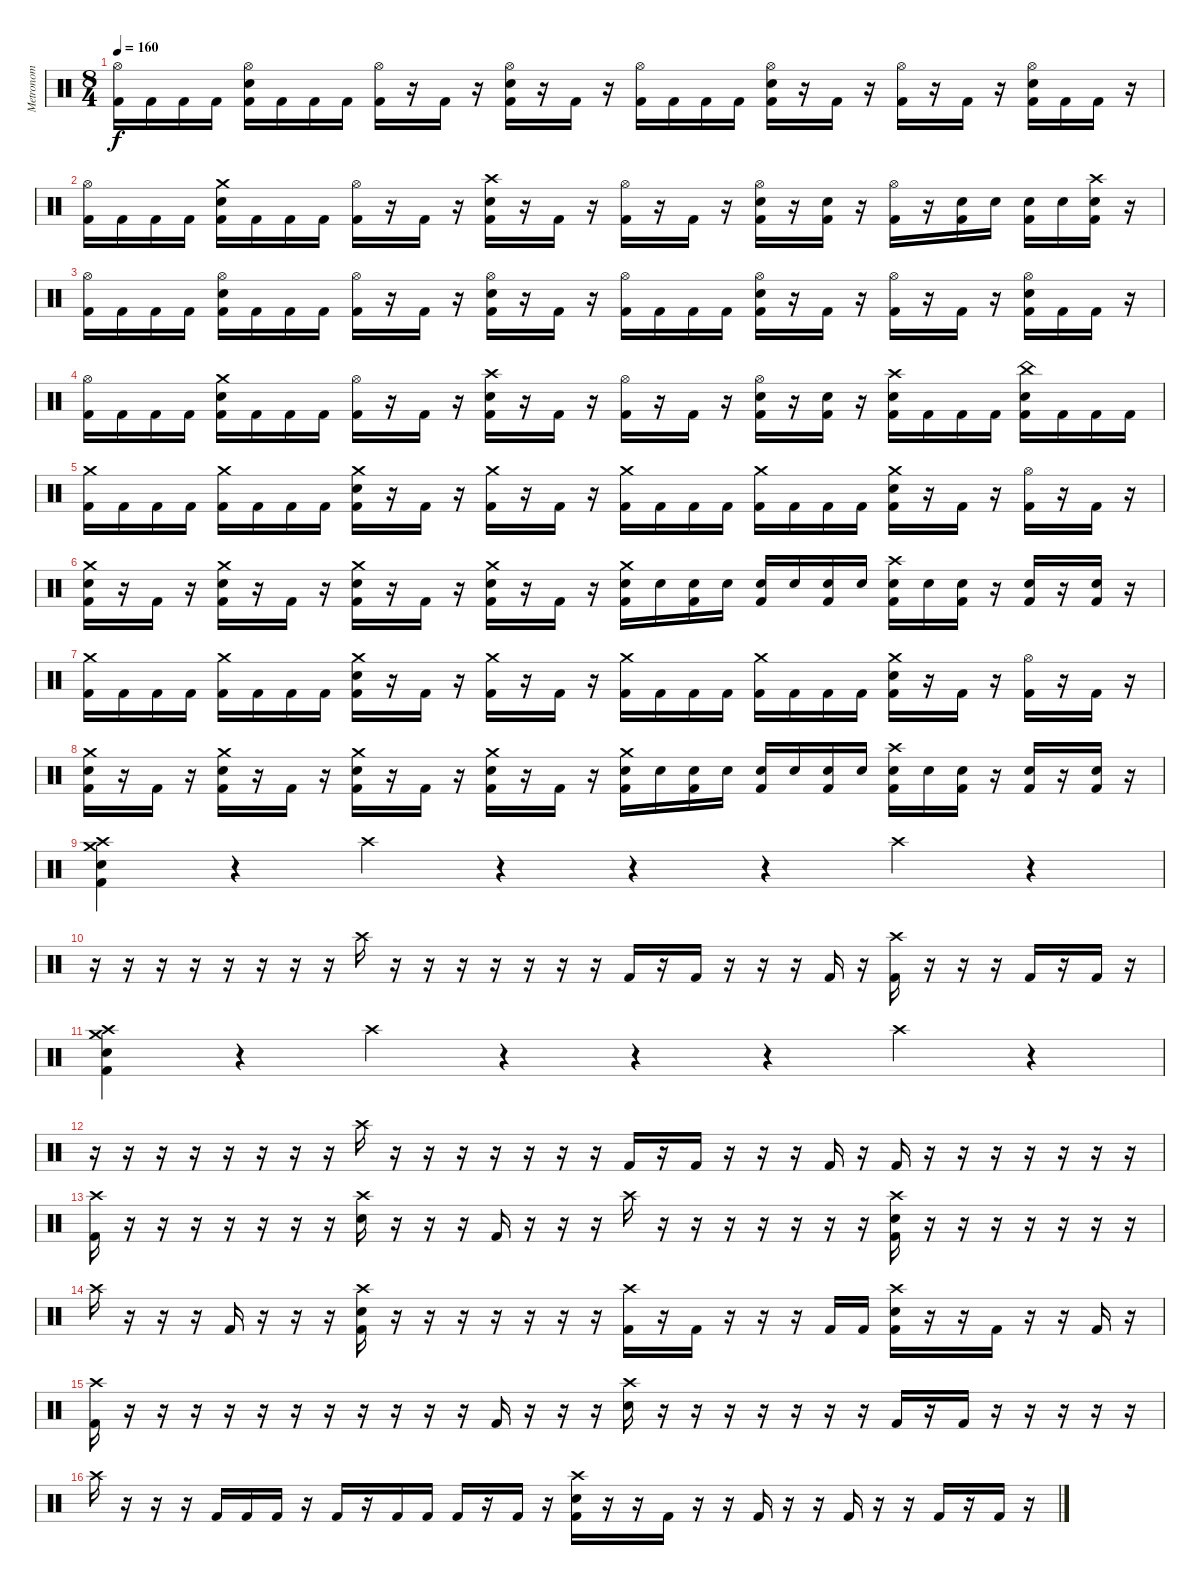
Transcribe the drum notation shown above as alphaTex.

\track ("Metronom" "Metronom") {instrument percussion}
\staff
\articulation defaults
\ts (8 4)
\tempo 160
\clef neutral
\ks c
("Hi-Hat (open)" "Kick (hit) 2").16{dy f} "Kick (hit) 2".16 "Kick (hit) 2".16 "Kick (hit) 2".16 ("Hi-Hat (open)" "Electric Snare (hit)" "Kick (hit) 2").16 "Kick (hit) 2".16 "Kick (hit) 2".16 "Kick (hit) 2".16 ("Hi-Hat (open)" "Kick (hit) 2").16 r.16 "Kick (hit) 2".16 r.16 ("Hi-Hat (open)" "Electric Snare (hit)" "Kick (hit) 2").16 r.16 "Kick (hit) 2".16 r.16 ("Hi-Hat (open)" "Kick (hit) 2").16 "Kick (hit) 2".16 "Kick (hit) 2".16 "Kick (hit) 2".16 ("Hi-Hat (open)" "Electric Snare (hit)" "Kick (hit) 2").16 r.16 "Kick (hit) 2".16 r.16 ("Hi-Hat (open)" "Kick (hit) 2").16 r.16 "Kick (hit) 2".16 r.16 ("Hi-Hat (open)" "Electric Snare (hit)" "Kick (hit) 2").16 "Kick (hit) 2".16 "Kick (hit) 2".16 r.16 |
("Hi-Hat (open)" "Kick (hit) 2").16 "Kick (hit) 2".16 "Kick (hit) 2".16 "Kick (hit) 2".16 ("Crash medium (hit)" "Electric Snare (hit)" "Kick (hit) 2").16 "Kick (hit) 2".16 "Kick (hit) 2".16 "Kick (hit) 2".16 ("Hi-Hat (open)" "Kick (hit) 2").16 r.16 "Kick (hit) 2".16 r.16 ("Crash high (hit)" "Electric Snare (hit)" "Kick (hit) 2").16 r.16 "Kick (hit) 2".16 r.16 ("Hi-Hat (open)" "Kick (hit) 2").16 r.16 "Kick (hit) 2".16 r.16 ("Hi-Hat (open)" "Electric Snare (hit)" "Kick (hit) 2").16 r.16 ("Electric Snare (hit)" "Kick (hit) 2").16 r.16 ("Hi-Hat (open)" "Kick (hit) 2").16 r.16 ("Electric Snare (hit)" "Kick (hit) 2").16 "Electric Snare (hit)".16 ("Electric Snare (hit)" "Kick (hit) 2").16 "Electric Snare (hit)".16 ("Crash high (hit)" "Electric Snare (hit)" "Kick (hit) 2").16 r.16 |
("Hi-Hat (open)" "Kick (hit) 2").16 "Kick (hit) 2".16 "Kick (hit) 2".16 "Kick (hit) 2".16 ("Hi-Hat (open)" "Electric Snare (hit)" "Kick (hit) 2").16 "Kick (hit) 2".16 "Kick (hit) 2".16 "Kick (hit) 2".16 ("Hi-Hat (open)" "Kick (hit) 2").16 r.16 "Kick (hit) 2".16 r.16 ("Hi-Hat (open)" "Electric Snare (hit)" "Kick (hit) 2").16 r.16 "Kick (hit) 2".16 r.16 ("Hi-Hat (open)" "Kick (hit) 2").16 "Kick (hit) 2".16 "Kick (hit) 2".16 "Kick (hit) 2".16 ("Hi-Hat (open)" "Electric Snare (hit)" "Kick (hit) 2").16 r.16 "Kick (hit) 2".16 r.16 ("Hi-Hat (open)" "Kick (hit) 2").16 r.16 "Kick (hit) 2".16 r.16 ("Hi-Hat (open)" "Electric Snare (hit)" "Kick (hit) 2").16 "Kick (hit) 2".16 "Kick (hit) 2".16 r.16 |
("Hi-Hat (open)" "Kick (hit) 2").16 "Kick (hit) 2".16 "Kick (hit) 2".16 "Kick (hit) 2".16 ("Crash medium (hit)" "Electric Snare (hit)" "Kick (hit) 2").16 "Kick (hit) 2".16 "Kick (hit) 2".16 "Kick (hit) 2".16 ("Hi-Hat (open)" "Kick (hit) 2").16 r.16 "Kick (hit) 2".16 r.16 ("Crash high (hit)" "Electric Snare (hit)" "Kick (hit) 2").16 r.16 "Kick (hit) 2".16 r.16 ("Hi-Hat (open)" "Kick (hit) 2").16 r.16 "Kick (hit) 2".16 r.16 ("Hi-Hat (open)" "Electric Snare (hit)" "Kick (hit) 2").16 r.16 ("Electric Snare (hit)" "Kick (hit) 2").16 r.16 ("Crash high (hit)" "Electric Snare (hit)" "Kick (hit) 2").16 "Kick (hit) 2".16 "Kick (hit) 2".16 "Kick (hit) 2".16 ("China (hit)" "Electric Snare (hit)" "Kick (hit) 2").16 "Kick (hit) 2".16 "Kick (hit) 2".16 "Kick (hit) 2".16 |
("Crash medium (hit)" "Kick (hit) 2").16 "Kick (hit) 2".16 "Kick (hit) 2".16 "Kick (hit) 2".16 ("Crash medium (hit)" "Kick (hit) 2").16 "Kick (hit) 2".16 "Kick (hit) 2".16 "Kick (hit) 2".16 ("Crash medium (hit)" "Electric Snare (hit)" "Kick (hit) 2").16 r.16 "Kick (hit) 2".16 r.16 ("Crash medium (hit)" "Kick (hit) 2").16 r.16 "Kick (hit) 2".16 r.16 ("Crash medium (hit)" "Kick (hit) 2").16 "Kick (hit) 2".16 "Kick (hit) 2".16 "Kick (hit) 2".16 ("Crash medium (hit)" "Kick (hit) 2").16 "Kick (hit) 2".16 "Kick (hit) 2".16 "Kick (hit) 2".16 ("Crash medium (hit)" "Electric Snare (hit)" "Kick (hit) 2").16 r.16 "Kick (hit) 2".16 r.16 ("Hi-Hat (open)" "Kick (hit) 2").16 r.16 "Kick (hit) 2".16 r.16 |
("Crash medium (hit)" "Electric Snare (hit)" "Kick (hit) 2").16 r.16 "Kick (hit) 2".16 r.16 ("Crash medium (hit)" "Electric Snare (hit)" "Kick (hit) 2").16 r.16 "Kick (hit) 2".16 r.16 ("Crash medium (hit)" "Electric Snare (hit)" "Kick (hit) 2").16 r.16 "Kick (hit) 2".16 r.16 ("Crash medium (hit)" "Electric Snare (hit)" "Kick (hit) 2").16 r.16 "Kick (hit) 2".16 r.16 ("Crash medium (hit)" "Electric Snare (hit)" "Kick (hit) 2").16 "Electric Snare (hit)".16 ("Electric Snare (hit)" "Kick (hit) 2").16 "Electric Snare (hit)".16 ("Electric Snare (hit)" "Kick (hit) 2").16 "Electric Snare (hit)".16 ("Electric Snare (hit)" "Kick (hit) 2").16 "Electric Snare (hit)".16 ("Crash high (hit)" "Electric Snare (hit)" "Kick (hit) 2").16 "Electric Snare (hit)".16 ("Electric Snare (hit)" "Kick (hit) 2").16 r.16 ("Electric Snare (hit)" "Kick (hit) 2").16 r.16 ("Electric Snare (hit)" "Kick (hit) 2").16 r.16 |
("Crash medium (hit)" "Kick (hit) 2").16 "Kick (hit) 2".16 "Kick (hit) 2".16 "Kick (hit) 2".16 ("Crash medium (hit)" "Kick (hit) 2").16 "Kick (hit) 2".16 "Kick (hit) 2".16 "Kick (hit) 2".16 ("Crash medium (hit)" "Electric Snare (hit)" "Kick (hit) 2").16 r.16 "Kick (hit) 2".16 r.16 ("Crash medium (hit)" "Kick (hit) 2").16 r.16 "Kick (hit) 2".16 r.16 ("Crash medium (hit)" "Kick (hit) 2").16 "Kick (hit) 2".16 "Kick (hit) 2".16 "Kick (hit) 2".16 ("Crash medium (hit)" "Kick (hit) 2").16 "Kick (hit) 2".16 "Kick (hit) 2".16 "Kick (hit) 2".16 ("Crash medium (hit)" "Electric Snare (hit)" "Kick (hit) 2").16 r.16 "Kick (hit) 2".16 r.16 ("Hi-Hat (open)" "Kick (hit) 2").16 r.16 "Kick (hit) 2".16 r.16 |
("Crash medium (hit)" "Electric Snare (hit)" "Kick (hit) 2").16 r.16 "Kick (hit) 2".16 r.16 ("Crash medium (hit)" "Electric Snare (hit)" "Kick (hit) 2").16 r.16 "Kick (hit) 2".16 r.16 ("Crash medium (hit)" "Electric Snare (hit)" "Kick (hit) 2").16 r.16 "Kick (hit) 2".16 r.16 ("Crash medium (hit)" "Electric Snare (hit)" "Kick (hit) 2").16 r.16 "Kick (hit) 2".16 r.16 ("Crash medium (hit)" "Electric Snare (hit)" "Kick (hit) 2").16 "Electric Snare (hit)".16 ("Electric Snare (hit)" "Kick (hit) 2").16 "Electric Snare (hit)".16 ("Electric Snare (hit)" "Kick (hit) 2").16 "Electric Snare (hit)".16 ("Electric Snare (hit)" "Kick (hit) 2").16 "Electric Snare (hit)".16 ("Crash high (hit)" "Electric Snare (hit)" "Kick (hit) 2").16 "Electric Snare (hit)".16 ("Electric Snare (hit)" "Kick (hit) 2").16 r.16 ("Electric Snare (hit)" "Kick (hit) 2").16 r.16 ("Electric Snare (hit)" "Kick (hit) 2").16 r.16 |
("Crash high (hit)" "Crash medium (hit)" "Electric Snare (hit)" "Kick (hit) 2").4 r.4 "Crash high (hit)".4 r.4 r.4 r.4 "Crash high (hit)".4 r.4 |
r.16 r.16 r.16 r.16 r.16 r.16 r.16 r.16 "Crash high (hit)".16 r.16 r.16 r.16 r.16 r.16 r.16 r.16 "Kick (hit) 2".16 r.16 "Kick (hit) 2".16 r.16 r.16 r.16 "Kick (hit) 2".16 r.16 ("Crash high (hit)" "Kick (hit) 2").16 r.16 r.16 r.16 "Kick (hit) 2".16 r.16 "Kick (hit) 2".16 r.16 |
("Crash high (hit)" "Crash medium (hit)" "Electric Snare (hit)" "Kick (hit) 2").4 r.4 "Crash high (hit)".4 r.4 r.4 r.4 "Crash high (hit)".4 r.4 |
r.16 r.16 r.16 r.16 r.16 r.16 r.16 r.16 "Crash high (hit)".16 r.16 r.16 r.16 r.16 r.16 r.16 r.16 "Kick (hit) 2".16 r.16 "Kick (hit) 2".16 r.16 r.16 r.16 "Kick (hit) 2".16 r.16 "Kick (hit) 2".16 r.16 r.16 r.16 r.16 r.16 r.16 r.16 |
("Crash high (hit)" "Kick (hit) 2").16 r.16 r.16 r.16 r.16 r.16 r.16 r.16 ("Crash high (hit)" "Electric Snare (hit)").16 r.16 r.16 r.16 "Kick (hit) 2".16 r.16 r.16 r.16 "Crash high (hit)".16 r.16 r.16 r.16 r.16 r.16 r.16 r.16 ("Crash high (hit)" "Electric Snare (hit)" "Kick (hit) 2").16 r.16 r.16 r.16 r.16 r.16 r.16 r.16 |
"Crash high (hit)".16 r.16 r.16 r.16 "Kick (hit) 2".16 r.16 r.16 r.16 ("Crash high (hit)" "Electric Snare (hit)" "Kick (hit) 2").16 r.16 r.16 r.16 r.16 r.16 r.16 r.16 ("Crash high (hit)" "Kick (hit) 2").16 r.16 "Kick (hit) 2".16 r.16 r.16 r.16 "Kick (hit) 2".16 "Kick (hit) 2".16 ("Crash high (hit)" "Electric Snare (hit)" "Kick (hit) 2").16 r.16 r.16 "Kick (hit) 2".16 r.16 r.16 "Kick (hit) 2".16 r.16 |
("Crash high (hit)" "Kick (hit) 2").16 r.16 r.16 r.16 r.16 r.16 r.16 r.16 r.16 r.16 r.16 r.16 "Kick (hit) 2".16 r.16 r.16 r.16 ("Crash high (hit)" "Electric Snare (hit)").16 r.16 r.16 r.16 r.16 r.16 r.16 r.16 "Kick (hit) 2".16 r.16 "Kick (hit) 2".16 r.16 r.16 r.16 r.16 r.16 |
"Crash high (hit)".16 r.16 r.16 r.16 "Kick (hit) 2".16 "Kick (hit) 2".16 "Kick (hit) 2".16 r.16 "Kick (hit) 2".16 r.16 "Kick (hit) 2".16 "Kick (hit) 2".16 "Kick (hit) 2".16 r.16 "Kick (hit) 2".16 r.16 ("Crash high (hit)" "Electric Snare (hit)" "Kick (hit) 2").16 r.16 r.16 "Kick (hit) 2".16 r.16 r.16 "Kick (hit) 2".16 r.16 r.16 "Kick (hit) 2".16 r.16 r.16 "Kick (hit) 2".16 r.16 "Kick (hit) 2".16 r.16
